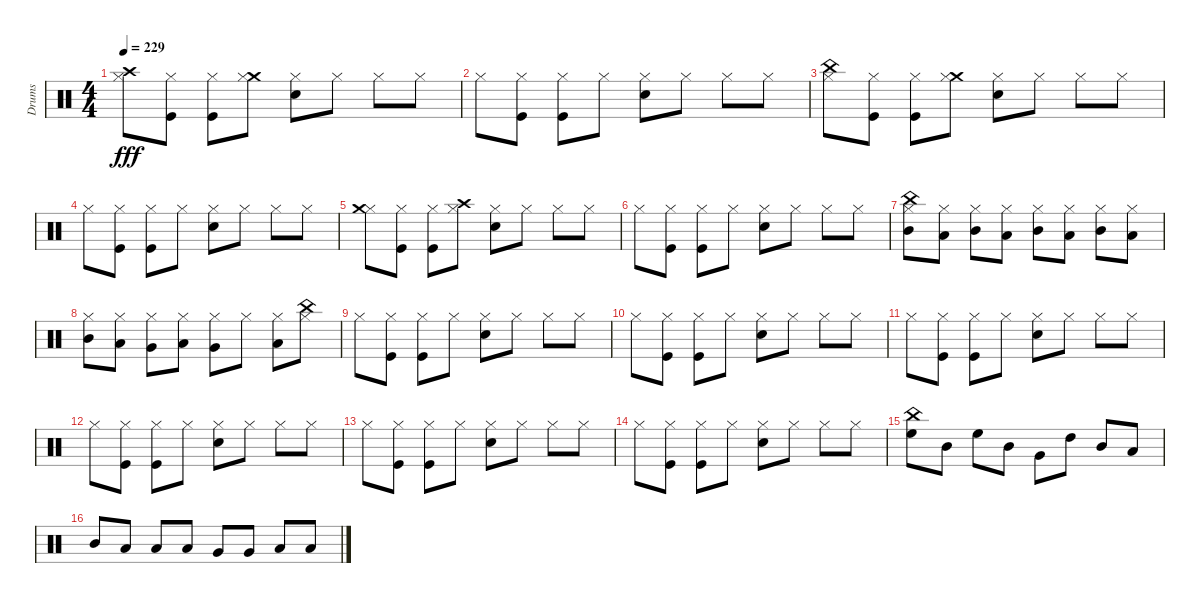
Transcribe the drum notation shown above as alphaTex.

\track ("Drums" "Drums") {instrument percussion}
\staff {score}
\articulation defaults
\ts (4 4)
\tempo 229
\clef neutral
\ks c
("Hi-Hat (closed)" "Crash high (hit)").8{dy fff} ("Kick (hit)" "Hi-Hat (closed)").8 ("Hi-Hat (closed)" "Kick (hit)").8 ("Crash medium (hit)" "Hi-Hat (closed)").8 ("Snare (hit) 2" "Hi-Hat (closed)").8 "Hi-Hat (closed)".8 "Hi-Hat (closed)".8 "Hi-Hat (closed)".8 |
"Hi-Hat (closed)".8 ("Kick (hit)" "Hi-Hat (closed)").8 ("Hi-Hat (closed)" "Kick (hit)").8 "Hi-Hat (closed)".8 ("Snare (hit) 2" "Hi-Hat (closed)").8 "Hi-Hat (closed)".8 "Hi-Hat (closed)".8 "Hi-Hat (closed)".8 |
("Hi-Hat (closed)" "China (hit)").8 ("Kick (hit)" "Hi-Hat (closed)").8 ("Hi-Hat (closed)" "Kick (hit)").8 ("Crash medium (hit)" "Hi-Hat (closed)").8 ("Snare (hit) 2" "Hi-Hat (closed)").8 "Hi-Hat (closed)".8 "Hi-Hat (closed)".8 "Hi-Hat (closed)".8 |
"Hi-Hat (closed)".8 ("Kick (hit)" "Hi-Hat (closed)").8 ("Hi-Hat (closed)" "Kick (hit)").8 "Hi-Hat (closed)".8 ("Snare (hit) 2" "Hi-Hat (closed)").8 "Hi-Hat (closed)".8 "Hi-Hat (closed)".8 "Hi-Hat (closed)".8 |
("Hi-Hat (closed)" "Crash medium (hit)").8 ("Kick (hit)" "Hi-Hat (closed)").8 ("Hi-Hat (closed)" "Kick (hit)").8 ("Crash high (hit)" "Hi-Hat (closed)").8 ("Snare (hit) 2" "Hi-Hat (closed)").8 "Hi-Hat (closed)".8 "Hi-Hat (closed)".8 "Hi-Hat (closed)".8 |
"Hi-Hat (closed)".8 ("Kick (hit)" "Hi-Hat (closed)").8 ("Hi-Hat (closed)" "Kick (hit)").8 "Hi-Hat (closed)".8 ("Snare (hit) 2" "Hi-Hat (closed)").8 "Hi-Hat (closed)".8 "Hi-Hat (closed)".8 "Hi-Hat (closed)".8 |
("Mid Tom (hit)" "Hi-Hat (closed)" "China (hit)").8 ("Hi-Hat (closed)" "Low Tom (hit)").8 ("Hi-Hat (closed)" "Mid Tom (hit)").8 ("Low Tom (hit)" "Hi-Hat (closed)").8 ("Mid Tom (hit)" "Hi-Hat (closed)").8 ("Hi-Hat (closed)" "Low Tom (hit)").8 ("Hi-Hat (closed)" "Mid Tom (hit)").8 ("Low Tom (hit)" "Hi-Hat (closed)").8 |
("Hi-Hat (closed)" "Mid Tom (hit)").8 ("Hi-Hat (closed)" "Low Tom (hit)").8 ("Hi-Hat (closed)" "Very Low Tom (hit)").8 ("Hi-Hat (closed)" "Low Tom (hit)").8 ("Very Low Tom (hit)" "Hi-Hat (closed)").8 "Hi-Hat (closed)".8 ("Hi-Hat (closed)" "Low Floor Tom (hit)").8 ("Hi-Hat (closed)" "China (hit)").8 |
"Hi-Hat (closed)".8 ("Kick (hit)" "Hi-Hat (closed)").8 ("Hi-Hat (closed)" "Kick (hit)").8 "Hi-Hat (closed)".8 ("Snare (hit) 2" "Hi-Hat (closed)").8 "Hi-Hat (closed)".8 "Hi-Hat (closed)".8 "Hi-Hat (closed)".8 |
"Hi-Hat (closed)".8 ("Kick (hit)" "Hi-Hat (closed)").8 ("Hi-Hat (closed)" "Kick (hit)").8 "Hi-Hat (closed)".8 ("Snare (hit) 2" "Hi-Hat (closed)").8 "Hi-Hat (closed)".8 "Hi-Hat (closed)".8 "Hi-Hat (closed)".8 |
"Hi-Hat (closed)".8 ("Kick (hit)" "Hi-Hat (closed)").8 ("Hi-Hat (closed)" "Kick (hit)").8 "Hi-Hat (closed)".8 ("Snare (hit) 2" "Hi-Hat (closed)").8 "Hi-Hat (closed)".8 "Hi-Hat (closed)".8 "Hi-Hat (closed)".8 |
"Hi-Hat (closed)".8 ("Kick (hit)" "Hi-Hat (closed)").8 ("Hi-Hat (closed)" "Kick (hit)").8 "Hi-Hat (closed)".8 ("Snare (hit) 2" "Hi-Hat (closed)").8 "Hi-Hat (closed)".8 "Hi-Hat (closed)".8 "Hi-Hat (closed)".8 |
"Hi-Hat (closed)".8 ("Kick (hit)" "Hi-Hat (closed)").8 ("Hi-Hat (closed)" "Kick (hit)").8 "Hi-Hat (closed)".8 ("Snare (hit) 2" "Hi-Hat (closed)").8 "Hi-Hat (closed)".8 "Hi-Hat (closed)".8 "Hi-Hat (closed)".8 |
"Hi-Hat (closed)".8 ("Kick (hit)" "Hi-Hat (closed)").8 ("Hi-Hat (closed)" "Kick (hit)").8 "Hi-Hat (closed)".8 ("Snare (hit) 2" "Hi-Hat (closed)").8 "Hi-Hat (closed)".8 "Hi-Hat (closed)".8 "Hi-Hat (closed)".8 |
("High Floor Tom (hit)" "China (hit)").8 "Mid Tom (hit)".8 "High Floor Tom (hit)".8 "Mid Tom (hit)".8 "Very Low Tom (hit)".8 "High Tom (hit)".8 "Mid Tom (hit)".8 "Low Tom (hit)".8 |
"Mid Tom (hit)".8 "Low Tom (hit)".8 "Low Floor Tom (hit)".8 "Low Tom (hit)".8 "Very Low Tom (hit)".8 "Very Low Tom (hit)".8 "Low Tom (hit)".8 "Low Tom (hit)".8
